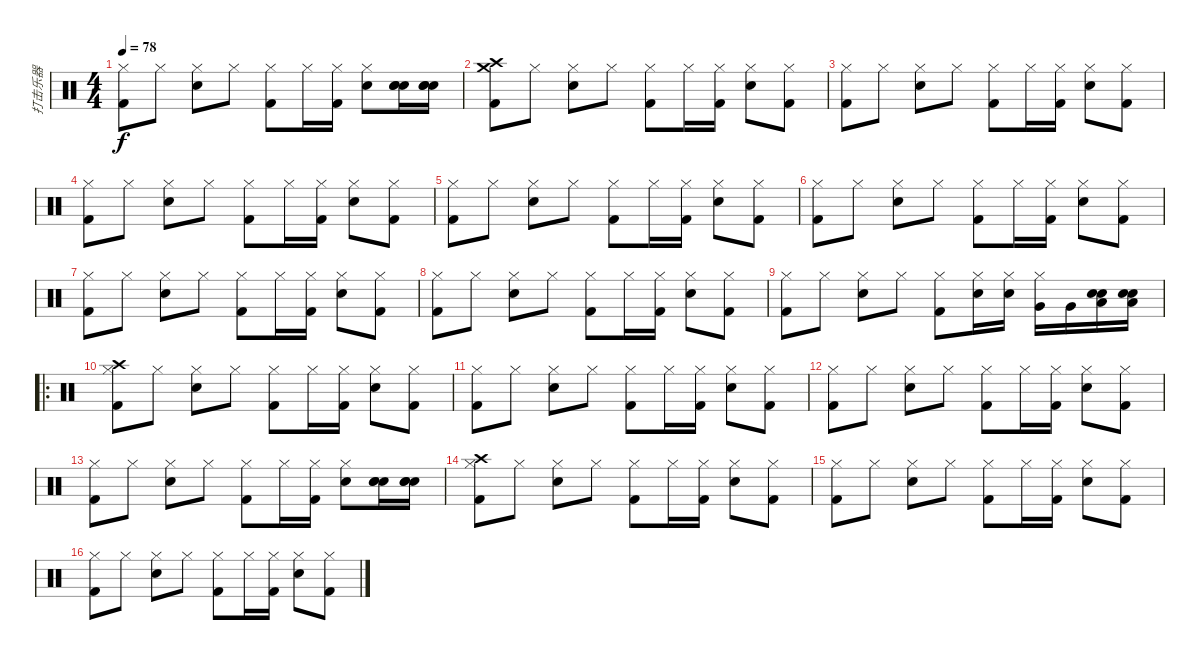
\track ("打击乐器" "打击乐器") {instrument percussion}
\staff {score}
\articulation defaults
\ts (4 4)
\tempo 78
\clef neutral
\ks c
("Kick (hit) 2" "Hi-Hat (closed)").8{dy f} "Hi-Hat (closed)".8 ("Electric Snare (hit)" "Hi-Hat (closed)").8 "Hi-Hat (closed)".8 ("Kick (hit) 2" "Hi-Hat (closed)").8 "Hi-Hat (closed)".16 ("Kick (hit) 2" "Hi-Hat (closed)").16 ("Electric Snare (hit)" "Hi-Hat (closed)").8 ("Electric Snare (hit)" "Electric Snare (hit)" "Electric Snare (hit)").16 ("Electric Snare (hit)" "Electric Snare (hit)" "Electric Snare (hit)").16 |
("Kick (hit) 2" "Crash high (hit)" "Crash medium (hit)").8 "Hi-Hat (closed)".8 ("Electric Snare (hit)" "Hi-Hat (closed)").8 "Hi-Hat (closed)".8 ("Kick (hit) 2" "Hi-Hat (closed)").8 "Hi-Hat (closed)".16 ("Kick (hit) 2" "Hi-Hat (closed)").16 ("Electric Snare (hit)" "Hi-Hat (closed)").8 ("Kick (hit) 2" "Hi-Hat (closed)").8 |
("Kick (hit) 2" "Hi-Hat (closed)").8 "Hi-Hat (closed)".8 ("Electric Snare (hit)" "Hi-Hat (closed)").8 "Hi-Hat (closed)".8 ("Kick (hit) 2" "Hi-Hat (closed)").8 "Hi-Hat (closed)".16 ("Kick (hit) 2" "Hi-Hat (closed)").16 ("Electric Snare (hit)" "Hi-Hat (closed)").8 ("Kick (hit) 2" "Hi-Hat (closed)").8 |
("Kick (hit) 2" "Hi-Hat (closed)").8 "Hi-Hat (closed)".8 ("Electric Snare (hit)" "Hi-Hat (closed)").8 "Hi-Hat (closed)".8 ("Kick (hit) 2" "Hi-Hat (closed)").8 "Hi-Hat (closed)".16 ("Kick (hit) 2" "Hi-Hat (closed)").16 ("Electric Snare (hit)" "Hi-Hat (closed)").8 ("Kick (hit) 2" "Hi-Hat (closed)").8 |
("Kick (hit) 2" "Hi-Hat (closed)").8 "Hi-Hat (closed)".8 ("Electric Snare (hit)" "Hi-Hat (closed)").8 "Hi-Hat (closed)".8 ("Kick (hit) 2" "Hi-Hat (closed)").8 "Hi-Hat (closed)".16 ("Kick (hit) 2" "Hi-Hat (closed)").16 ("Electric Snare (hit)" "Hi-Hat (closed)").8 ("Kick (hit) 2" "Hi-Hat (closed)").8 |
("Kick (hit) 2" "Hi-Hat (closed)").8 "Hi-Hat (closed)".8 ("Electric Snare (hit)" "Hi-Hat (closed)").8 "Hi-Hat (closed)".8 ("Kick (hit) 2" "Hi-Hat (closed)").8 "Hi-Hat (closed)".16 ("Kick (hit) 2" "Hi-Hat (closed)").16 ("Electric Snare (hit)" "Hi-Hat (closed)").8 ("Kick (hit) 2" "Hi-Hat (closed)").8 |
("Kick (hit) 2" "Hi-Hat (closed)").8 "Hi-Hat (closed)".8 ("Electric Snare (hit)" "Hi-Hat (closed)").8 "Hi-Hat (closed)".8 ("Kick (hit) 2" "Hi-Hat (closed)").8 "Hi-Hat (closed)".16 ("Kick (hit) 2" "Hi-Hat (closed)").16 ("Electric Snare (hit)" "Hi-Hat (closed)").8 ("Kick (hit) 2" "Hi-Hat (closed)").8 |
("Kick (hit) 2" "Hi-Hat (closed)").8 "Hi-Hat (closed)".8 ("Electric Snare (hit)" "Hi-Hat (closed)").8 "Hi-Hat (closed)".8 ("Kick (hit) 2" "Hi-Hat (closed)").8 "Hi-Hat (closed)".16 ("Kick (hit) 2" "Hi-Hat (closed)").16 ("Electric Snare (hit)" "Hi-Hat (closed)").8 ("Kick (hit) 2" "Hi-Hat (closed)").8 |
("Kick (hit) 2" "Hi-Hat (closed)").8 "Hi-Hat (closed)".8 ("Electric Snare (hit)" "Hi-Hat (closed)").8 "Hi-Hat (closed)".8 ("Kick (hit) 2" "Hi-Hat (closed)").8 ("Electric Snare (hit)" "Hi-Hat (closed)").16 ("Electric Snare (hit)" "Hi-Hat (closed)").16 ("Very Low Tom (hit)" "Hi-Hat (closed)").16 "Very Low Tom (hit)".16 ("Low Tom (hit)" "Electric Snare (hit)" "Electric Snare (hit)").16 ("Low Tom (hit)" "Electric Snare (hit)" "Electric Snare (hit)").16 |
\ro
("Kick (hit) 2" "Crash high (hit)" "Hi-Hat (closed)").8 "Hi-Hat (closed)".8 ("Electric Snare (hit)" "Hi-Hat (closed)").8 "Hi-Hat (closed)".8 ("Kick (hit) 2" "Hi-Hat (closed)").8 "Hi-Hat (closed)".16 ("Kick (hit) 2" "Hi-Hat (closed)").16 ("Electric Snare (hit)" "Hi-Hat (closed)").8 ("Kick (hit) 2" "Hi-Hat (closed)").8 |
("Kick (hit) 2" "Hi-Hat (closed)").8 "Hi-Hat (closed)".8 ("Electric Snare (hit)" "Hi-Hat (closed)").8 "Hi-Hat (closed)".8 ("Kick (hit) 2" "Hi-Hat (closed)").8 "Hi-Hat (closed)".16 ("Kick (hit) 2" "Hi-Hat (closed)").16 ("Electric Snare (hit)" "Hi-Hat (closed)").8 ("Kick (hit) 2" "Hi-Hat (closed)").8 |
("Kick (hit) 2" "Hi-Hat (closed)").8 "Hi-Hat (closed)".8 ("Electric Snare (hit)" "Hi-Hat (closed)").8 "Hi-Hat (closed)".8 ("Kick (hit) 2" "Hi-Hat (closed)").8 "Hi-Hat (closed)".16 ("Kick (hit) 2" "Hi-Hat (closed)").16 ("Electric Snare (hit)" "Hi-Hat (closed)").8 ("Kick (hit) 2" "Hi-Hat (closed)").8 |
("Kick (hit) 2" "Hi-Hat (closed)").8 "Hi-Hat (closed)".8 ("Electric Snare (hit)" "Hi-Hat (closed)").8 "Hi-Hat (closed)".8 ("Kick (hit) 2" "Hi-Hat (closed)").8 "Hi-Hat (closed)".16 ("Kick (hit) 2" "Hi-Hat (closed)").16 ("Electric Snare (hit)" "Hi-Hat (closed)").8 ("Electric Snare (hit)" "Electric Snare (hit)" "Electric Snare (hit)").16 ("Electric Snare (hit)" "Electric Snare (hit)" "Electric Snare (hit)").16 |
("Kick (hit) 2" "Crash high (hit)" "Hi-Hat (closed)").8 "Hi-Hat (closed)".8 ("Electric Snare (hit)" "Hi-Hat (closed)").8 "Hi-Hat (closed)".8 ("Kick (hit) 2" "Hi-Hat (closed)").8 "Hi-Hat (closed)".16 ("Kick (hit) 2" "Hi-Hat (closed)").16 ("Electric Snare (hit)" "Hi-Hat (closed)").8 ("Kick (hit) 2" "Hi-Hat (closed)").8 |
("Kick (hit) 2" "Hi-Hat (closed)").8 "Hi-Hat (closed)".8 ("Electric Snare (hit)" "Hi-Hat (closed)").8 "Hi-Hat (closed)".8 ("Kick (hit) 2" "Hi-Hat (closed)").8 "Hi-Hat (closed)".16 ("Kick (hit) 2" "Hi-Hat (closed)").16 ("Electric Snare (hit)" "Hi-Hat (closed)").8 ("Kick (hit) 2" "Hi-Hat (closed)").8 |
("Kick (hit) 2" "Hi-Hat (closed)").8 "Hi-Hat (closed)".8 ("Electric Snare (hit)" "Hi-Hat (closed)").8 "Hi-Hat (closed)".8 ("Kick (hit) 2" "Hi-Hat (closed)").8 "Hi-Hat (closed)".16 ("Kick (hit) 2" "Hi-Hat (closed)").16 ("Electric Snare (hit)" "Hi-Hat (closed)").8 ("Kick (hit) 2" "Hi-Hat (closed)").8
